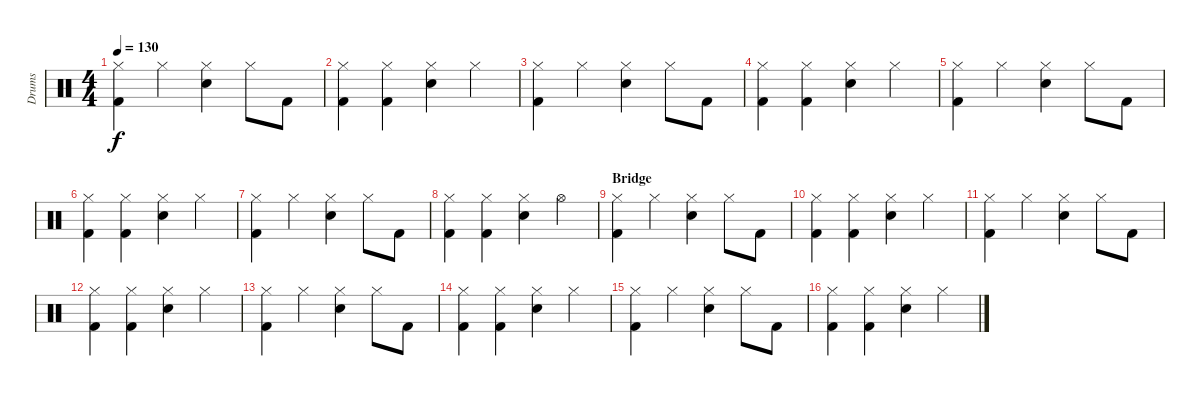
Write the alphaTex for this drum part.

\track ("Drums" "Drums") {instrument percussion}
\staff {score}
\articulation defaults
\ts (4 4)
\tempo 130
\clef neutral
\ks c
("Hi-Hat (closed)" "Kick (hit) 2").4{dy f} "Hi-Hat (closed)".4 ("Hi-Hat (closed)" "Snare (hit) 2").4 "Hi-Hat (closed)".8 "Kick (hit) 2".8 |
("Hi-Hat (closed)" "Kick (hit) 2").4 ("Hi-Hat (closed)" "Kick (hit) 2").4 ("Hi-Hat (closed)" "Snare (hit) 2").4 "Hi-Hat (closed)".4 |
("Hi-Hat (closed)" "Kick (hit) 2").4 "Hi-Hat (closed)".4 ("Hi-Hat (closed)" "Snare (hit) 2").4 "Hi-Hat (closed)".8 "Kick (hit) 2".8 |
("Hi-Hat (closed)" "Kick (hit) 2").4 ("Hi-Hat (closed)" "Kick (hit) 2").4 ("Hi-Hat (closed)" "Snare (hit) 2").4 "Hi-Hat (closed)".4 |
("Hi-Hat (closed)" "Kick (hit) 2").4 "Hi-Hat (closed)".4 ("Hi-Hat (closed)" "Snare (hit) 2").4 "Hi-Hat (closed)".8 "Kick (hit) 2".8 |
("Hi-Hat (closed)" "Kick (hit) 2").4 ("Hi-Hat (closed)" "Kick (hit) 2").4 ("Hi-Hat (closed)" "Snare (hit) 2").4 "Hi-Hat (closed)".4 |
("Hi-Hat (closed)" "Kick (hit) 2").4 "Hi-Hat (closed)".4 ("Hi-Hat (closed)" "Snare (hit) 2").4 "Hi-Hat (closed)".8 "Kick (hit) 2".8 |
("Hi-Hat (closed)" "Kick (hit) 2").4 ("Hi-Hat (closed)" "Kick (hit) 2").4 ("Hi-Hat (closed)" "Snare (hit) 2").4 "Hi-Hat (open)".4 |
\section ("" "Bridge")
("Hi-Hat (closed)" "Kick (hit) 2").4 "Hi-Hat (closed)".4 ("Hi-Hat (closed)" "Snare (hit) 2").4 "Hi-Hat (closed)".8 "Kick (hit) 2".8 |
("Hi-Hat (closed)" "Kick (hit) 2").4 ("Hi-Hat (closed)" "Kick (hit) 2").4 ("Hi-Hat (closed)" "Snare (hit) 2").4 "Hi-Hat (closed)".4 |
("Hi-Hat (closed)" "Kick (hit) 2").4 "Hi-Hat (closed)".4 ("Hi-Hat (closed)" "Snare (hit) 2").4 "Hi-Hat (closed)".8 "Kick (hit) 2".8 |
("Hi-Hat (closed)" "Kick (hit) 2").4 ("Hi-Hat (closed)" "Kick (hit) 2").4 ("Hi-Hat (closed)" "Snare (hit) 2").4 "Hi-Hat (closed)".4 |
("Hi-Hat (closed)" "Kick (hit) 2").4 "Hi-Hat (closed)".4 ("Hi-Hat (closed)" "Snare (hit) 2").4 "Hi-Hat (closed)".8 "Kick (hit) 2".8 |
("Hi-Hat (closed)" "Kick (hit) 2").4 ("Hi-Hat (closed)" "Kick (hit) 2").4 ("Hi-Hat (closed)" "Snare (hit) 2").4 "Hi-Hat (closed)".4 |
("Hi-Hat (closed)" "Kick (hit) 2").4 "Hi-Hat (closed)".4 ("Hi-Hat (closed)" "Snare (hit) 2").4 "Hi-Hat (closed)".8 "Kick (hit) 2".8 |
("Hi-Hat (closed)" "Kick (hit) 2").4 ("Hi-Hat (closed)" "Kick (hit) 2").4 ("Hi-Hat (closed)" "Snare (hit) 2").4 "Hi-Hat (closed)".4
